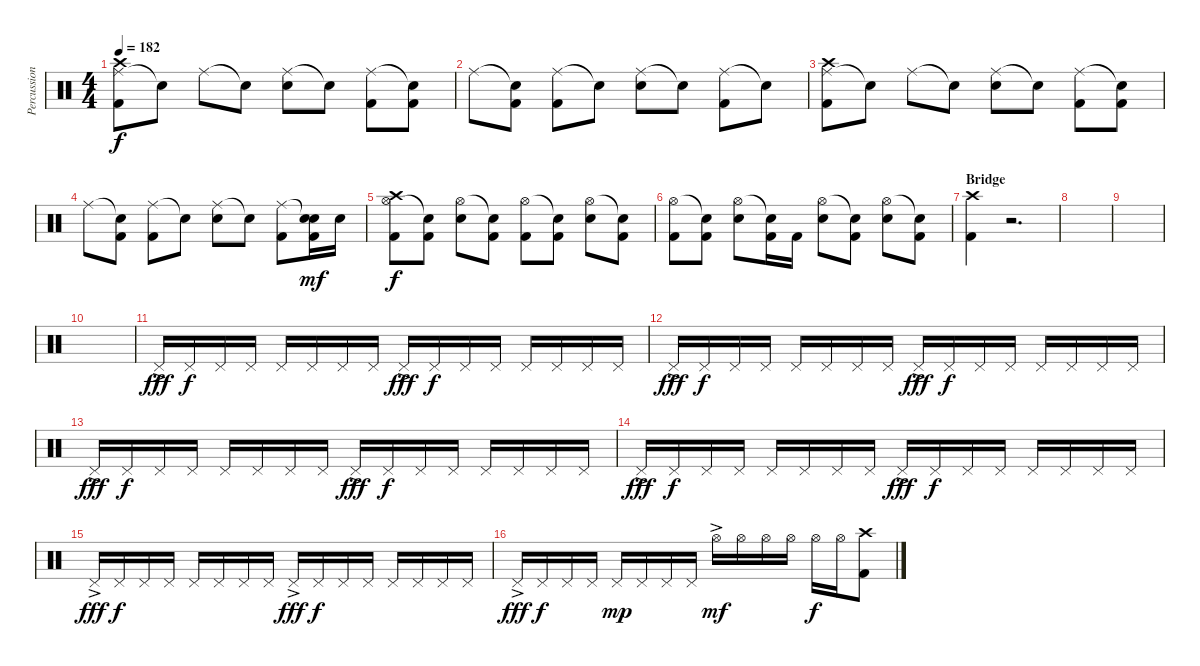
\track ("Percussion" "Percussion") {instrument percussion}
\staff {score}
\articulation defaults
\ts (4 4)
\tempo 182
\clef neutral
\ks c
("Ride (middle)" "Kick (hit) 2" "Crash high (hit)").8{dy f} "Snare (hit)"{t}.8 "Ride (middle)".8 "Snare (hit)"{t}.8 ("Ride (middle)" "Electric Snare (hit)").8 "Snare (hit)"{t}.8 ("Ride (middle)" "Kick (hit) 2").8 ("Snare (hit)"{t} "Kick (hit) 2").8 |
"Ride (middle)".8 ("Snare (hit)"{t} "Kick (hit) 2").8 ("Ride (middle)" "Kick (hit) 2").8 "Snare (hit)"{t}.8 ("Ride (middle)" "Electric Snare (hit)").8 "Snare (hit)"{t}.8 ("Ride (middle)" "Kick (hit) 2").8 "Snare (hit)"{t}.8 |
("Ride (middle)" "Kick (hit) 2" "Crash high (hit)").8 "Snare (hit)"{t}.8 "Ride (middle)".8 "Snare (hit)"{t}.8 ("Ride (middle)" "Electric Snare (hit)").8 "Snare (hit)"{t}.8 ("Ride (middle)" "Kick (hit) 2").8 ("Snare (hit)"{t} "Kick (hit) 2").8 |
"Ride (middle)".8 ("Snare (hit)"{t} "Kick (hit) 2").8 ("Ride (middle)" "Kick (hit) 2").8 "Snare (hit)"{t}.8 ("Ride (middle)" "Electric Snare (hit)").8 "Snare (hit)"{t}.8 ("Ride (middle)" "Kick (hit) 2").8 ("Snare (hit)"{t} "Kick (hit) 2" "Electric Snare (hit)").16{dy mf} "Electric Snare (hit)".16 |
("Hi-Hat (open)" "Kick (hit) 2" "Crash high (hit)").8{dy f} ("Snare (hit)"{t} "Kick (hit) 2").8 ("Hi-Hat (open)" "Electric Snare (hit)").8 ("Snare (hit)"{t} "Kick (hit) 2").8 ("Hi-Hat (open)" "Kick (hit) 2").8 ("Snare (hit)"{t} "Kick (hit) 2").8 ("Hi-Hat (open)" "Electric Snare (hit)").8 ("Snare (hit)"{t} "Kick (hit) 2").8 |
("Hi-Hat (open)" "Kick (hit) 2").8 ("Snare (hit)"{t} "Kick (hit) 2").8 ("Hi-Hat (open)" "Electric Snare (hit)").8 ("Snare (hit)"{t} "Kick (hit) 2").16 "Kick (hit) 2".16 ("Hi-Hat (open)" "Electric Snare (hit)").8 ("Snare (hit)"{t} "Kick (hit) 2").8 ("Hi-Hat (open)" "Electric Snare (hit)").8 ("Snare (hit)"{t} "Kick (hit) 2").8 |
\section ("" "Bridge")
("Kick (hit) 2" "Crash high (hit)").4 r.2{d} |
|
|
|
"Pedal Hi-Hat (hit)"{ac}.16{dy fff} "Pedal Hi-Hat (hit)".16{dy f} "Pedal Hi-Hat (hit)".16 "Pedal Hi-Hat (hit)".16 "Pedal Hi-Hat (hit)".16 "Pedal Hi-Hat (hit)".16 "Pedal Hi-Hat (hit)".16 "Pedal Hi-Hat (hit)".16 "Pedal Hi-Hat (hit)"{ac}.16{dy fff} "Pedal Hi-Hat (hit)".16{dy f} "Pedal Hi-Hat (hit)".16 "Pedal Hi-Hat (hit)".16 "Pedal Hi-Hat (hit)".16 "Pedal Hi-Hat (hit)".16 "Pedal Hi-Hat (hit)".16 "Pedal Hi-Hat (hit)".16 |
"Pedal Hi-Hat (hit)"{ac}.16{dy fff} "Pedal Hi-Hat (hit)".16{dy f} "Pedal Hi-Hat (hit)".16 "Pedal Hi-Hat (hit)".16 "Pedal Hi-Hat (hit)".16 "Pedal Hi-Hat (hit)".16 "Pedal Hi-Hat (hit)".16 "Pedal Hi-Hat (hit)".16 "Pedal Hi-Hat (hit)"{ac}.16{dy fff} "Pedal Hi-Hat (hit)".16{dy f} "Pedal Hi-Hat (hit)".16 "Pedal Hi-Hat (hit)".16 "Pedal Hi-Hat (hit)".16 "Pedal Hi-Hat (hit)".16 "Pedal Hi-Hat (hit)".16 "Pedal Hi-Hat (hit)".16 |
"Pedal Hi-Hat (hit)"{ac}.16{dy fff} "Pedal Hi-Hat (hit)".16{dy f} "Pedal Hi-Hat (hit)".16 "Pedal Hi-Hat (hit)".16 "Pedal Hi-Hat (hit)".16 "Pedal Hi-Hat (hit)".16 "Pedal Hi-Hat (hit)".16 "Pedal Hi-Hat (hit)".16 "Pedal Hi-Hat (hit)"{ac}.16{dy fff} "Pedal Hi-Hat (hit)".16{dy f} "Pedal Hi-Hat (hit)".16 "Pedal Hi-Hat (hit)".16 "Pedal Hi-Hat (hit)".16 "Pedal Hi-Hat (hit)".16 "Pedal Hi-Hat (hit)".16 "Pedal Hi-Hat (hit)".16 |
"Pedal Hi-Hat (hit)"{ac}.16{dy fff} "Pedal Hi-Hat (hit)".16{dy f} "Pedal Hi-Hat (hit)".16 "Pedal Hi-Hat (hit)".16 "Pedal Hi-Hat (hit)".16 "Pedal Hi-Hat (hit)".16 "Pedal Hi-Hat (hit)".16 "Pedal Hi-Hat (hit)".16 "Pedal Hi-Hat (hit)"{ac}.16{dy fff} "Pedal Hi-Hat (hit)".16{dy f} "Pedal Hi-Hat (hit)".16 "Pedal Hi-Hat (hit)".16 "Pedal Hi-Hat (hit)".16 "Pedal Hi-Hat (hit)".16 "Pedal Hi-Hat (hit)".16 "Pedal Hi-Hat (hit)".16 |
"Pedal Hi-Hat (hit)"{ac}.16{dy fff} "Pedal Hi-Hat (hit)".16{dy f} "Pedal Hi-Hat (hit)".16 "Pedal Hi-Hat (hit)".16 "Pedal Hi-Hat (hit)".16 "Pedal Hi-Hat (hit)".16 "Pedal Hi-Hat (hit)".16 "Pedal Hi-Hat (hit)".16 "Pedal Hi-Hat (hit)"{ac}.16{dy fff} "Pedal Hi-Hat (hit)".16{dy f} "Pedal Hi-Hat (hit)".16 "Pedal Hi-Hat (hit)".16 "Pedal Hi-Hat (hit)".16 "Pedal Hi-Hat (hit)".16 "Pedal Hi-Hat (hit)".16 "Pedal Hi-Hat (hit)".16 |
"Pedal Hi-Hat (hit)"{ac}.16{dy fff} "Pedal Hi-Hat (hit)".16{dy f} "Pedal Hi-Hat (hit)".16 "Pedal Hi-Hat (hit)".16 "Pedal Hi-Hat (hit)".16{dy mp} "Pedal Hi-Hat (hit)".16 "Pedal Hi-Hat (hit)".16 "Pedal Hi-Hat (hit)".16 "Hi-Hat (open)"{ac}.16{dy mf} "Hi-Hat (open)".16 "Hi-Hat (open)".16 "Hi-Hat (open)".16 "Hi-Hat (open)".16{dy f} "Hi-Hat (open)".16 ("Kick (hit) 2" "Crash high (hit)").8
